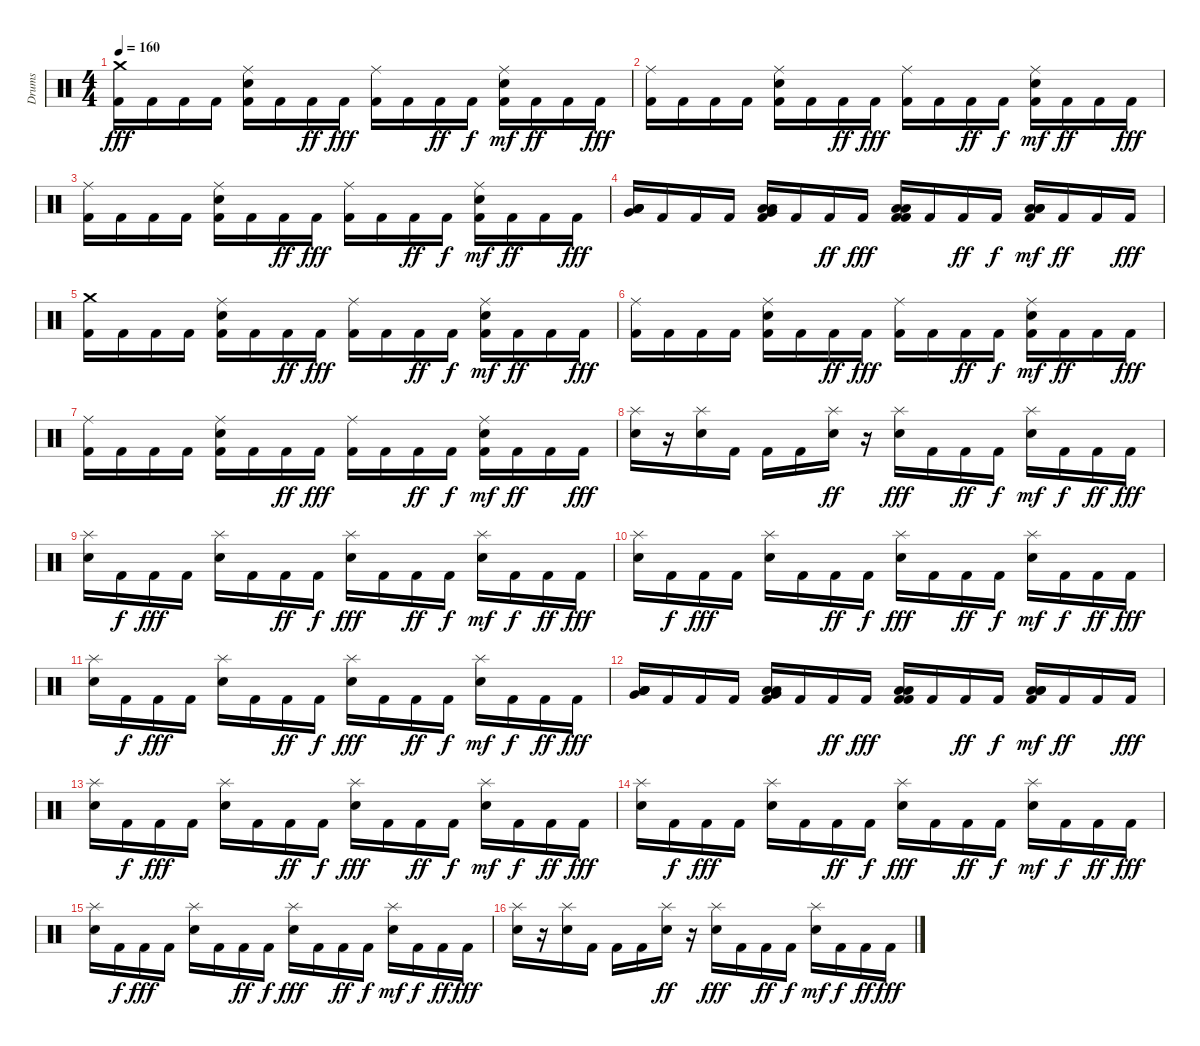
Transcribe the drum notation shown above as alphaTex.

\track ("Drums" "Drums") {instrument percussion}
\staff {score}
\articulation defaults
\ts (4 4)
\tempo 160
\clef neutral
\ks c
("Kick (hit) 2" "Crash medium (hit)").16{dy fff} "Kick (hit) 2".16 "Kick (hit) 2".16 "Kick (hit) 2".16 ("Kick (hit) 2" "Electric Snare (hit)" "Ride (middle)").16 "Kick (hit) 2".16 "Kick (hit) 2".16{dy ff} "Kick (hit) 2".16{dy fff} ("Kick (hit) 2" "Ride (middle)").16 "Kick (hit) 2".16 "Kick (hit) 2".16{dy ff} "Kick (hit) 2".16{dy f} ("Kick (hit) 2" "Electric Snare (hit)" "Ride (middle)").16{dy mf} "Kick (hit) 2".16{dy ff} "Kick (hit) 2".16 "Kick (hit) 2".16{dy fff} |
("Kick (hit) 2" "Ride (middle)").16 "Kick (hit) 2".16 "Kick (hit) 2".16 "Kick (hit) 2".16 ("Kick (hit) 2" "Electric Snare (hit)" "Ride (middle)").16 "Kick (hit) 2".16 "Kick (hit) 2".16{dy ff} "Kick (hit) 2".16{dy fff} ("Kick (hit) 2" "Ride (middle)").16 "Kick (hit) 2".16 "Kick (hit) 2".16{dy ff} "Kick (hit) 2".16{dy f} ("Kick (hit) 2" "Electric Snare (hit)" "Ride (middle)").16{dy mf} "Kick (hit) 2".16{dy ff} "Kick (hit) 2".16 "Kick (hit) 2".16{dy fff} |
("Kick (hit) 2" "Ride (middle)").16 "Kick (hit) 2".16 "Kick (hit) 2".16 "Kick (hit) 2".16 ("Kick (hit) 2" "Electric Snare (hit)" "Ride (middle)").16 "Kick (hit) 2".16 "Kick (hit) 2".16{dy ff} "Kick (hit) 2".16{dy fff} ("Kick (hit) 2" "Ride (middle)").16 "Kick (hit) 2".16 "Kick (hit) 2".16{dy ff} "Kick (hit) 2".16{dy f} ("Kick (hit) 2" "Electric Snare (hit)" "Ride (middle)").16{dy mf} "Kick (hit) 2".16{dy ff} "Kick (hit) 2".16 "Kick (hit) 2".16{dy fff} |
("Low Floor Tom (hit)" "Low Tom (hit)" "Low Floor Tom (hit)" "Very Low Tom (hit)").16 "Kick (hit) 2".16 "Kick (hit) 2".16 "Kick (hit) 2".16 ("Low Floor Tom (hit)" "Kick (hit) 2" "Low Floor Tom (hit)" "Very Low Tom (hit)").16 "Kick (hit) 2".16 "Kick (hit) 2".16{dy ff} "Kick (hit) 2".16{dy fff} ("Low Floor Tom (hit)" "Kick (hit) 2" "Low Floor Tom (hit)" "Kick (hit) 2").16 "Kick (hit) 2".16 "Kick (hit) 2".16{dy ff} "Kick (hit) 2".16{dy f} ("Low Floor Tom (hit)" "Kick (hit) 2" "Low Floor Tom (hit)" "Low Tom (hit)").16{dy mf} "Kick (hit) 2".16{dy ff} "Kick (hit) 2".16 "Kick (hit) 2".16{dy fff} |
("Kick (hit) 2" "Crash medium (hit)").16 "Kick (hit) 2".16 "Kick (hit) 2".16 "Kick (hit) 2".16 ("Kick (hit) 2" "Electric Snare (hit)" "Ride (middle)").16 "Kick (hit) 2".16 "Kick (hit) 2".16{dy ff} "Kick (hit) 2".16{dy fff} ("Kick (hit) 2" "Ride (middle)").16 "Kick (hit) 2".16 "Kick (hit) 2".16{dy ff} "Kick (hit) 2".16{dy f} ("Kick (hit) 2" "Electric Snare (hit)" "Ride (middle)").16{dy mf} "Kick (hit) 2".16{dy ff} "Kick (hit) 2".16 "Kick (hit) 2".16{dy fff} |
("Kick (hit) 2" "Ride (middle)").16 "Kick (hit) 2".16 "Kick (hit) 2".16 "Kick (hit) 2".16 ("Kick (hit) 2" "Electric Snare (hit)" "Ride (middle)").16 "Kick (hit) 2".16 "Kick (hit) 2".16{dy ff} "Kick (hit) 2".16{dy fff} ("Kick (hit) 2" "Ride (middle)").16 "Kick (hit) 2".16 "Kick (hit) 2".16{dy ff} "Kick (hit) 2".16{dy f} ("Kick (hit) 2" "Electric Snare (hit)" "Ride (middle)").16{dy mf} "Kick (hit) 2".16{dy ff} "Kick (hit) 2".16 "Kick (hit) 2".16{dy fff} |
("Kick (hit) 2" "Ride (middle)").16 "Kick (hit) 2".16 "Kick (hit) 2".16 "Kick (hit) 2".16 ("Kick (hit) 2" "Electric Snare (hit)" "Ride (middle)").16 "Kick (hit) 2".16 "Kick (hit) 2".16{dy ff} "Kick (hit) 2".16{dy fff} ("Kick (hit) 2" "Ride (middle)").16 "Kick (hit) 2".16 "Kick (hit) 2".16{dy ff} "Kick (hit) 2".16{dy f} ("Kick (hit) 2" "Electric Snare (hit)" "Ride (middle)").16{dy mf} "Kick (hit) 2".16{dy ff} "Kick (hit) 2".16 "Kick (hit) 2".16{dy fff} |
("Splash (hit)" "Electric Snare (hit)").16 r.16 ("Splash (hit)" "Electric Snare (hit)").16 "Kick (hit) 2".16 "Kick (hit) 2".16 "Kick (hit) 2".16 ("Splash (hit)" "Electric Snare (hit)").16{dy ff} r.16 ("Splash (hit)" "Electric Snare (hit)").16{dy fff} "Kick (hit) 2".16 "Kick (hit) 2".16{dy ff} "Kick (hit) 2".16{dy f} ("Splash (hit)" "Electric Snare (hit)").16{dy mf} "Kick (hit) 2".16{dy f} "Kick (hit) 2".16{dy ff} "Kick (hit) 2".16{dy fff} |
("Splash (hit)" "Electric Snare (hit)").16 "Kick (hit) 2".16{dy f} "Kick (hit) 2".16{dy fff} "Kick (hit) 2".16 ("Splash (hit)" "Electric Snare (hit)").16 "Kick (hit) 2".16 "Kick (hit) 2".16{dy ff} "Kick (hit) 2".16{dy f} ("Splash (hit)" "Electric Snare (hit)").16{dy fff} "Kick (hit) 2".16 "Kick (hit) 2".16{dy ff} "Kick (hit) 2".16{dy f} ("Splash (hit)" "Electric Snare (hit)").16{dy mf} "Kick (hit) 2".16{dy f} "Kick (hit) 2".16{dy ff} "Kick (hit) 2".16{dy fff} |
("Splash (hit)" "Electric Snare (hit)").16 "Kick (hit) 2".16{dy f} "Kick (hit) 2".16{dy fff} "Kick (hit) 2".16 ("Splash (hit)" "Electric Snare (hit)").16 "Kick (hit) 2".16 "Kick (hit) 2".16{dy ff} "Kick (hit) 2".16{dy f} ("Splash (hit)" "Electric Snare (hit)").16{dy fff} "Kick (hit) 2".16 "Kick (hit) 2".16{dy ff} "Kick (hit) 2".16{dy f} ("Splash (hit)" "Electric Snare (hit)").16{dy mf} "Kick (hit) 2".16{dy f} "Kick (hit) 2".16{dy ff} "Kick (hit) 2".16{dy fff} |
("Splash (hit)" "Electric Snare (hit)").16 "Kick (hit) 2".16{dy f} "Kick (hit) 2".16{dy fff} "Kick (hit) 2".16 ("Splash (hit)" "Electric Snare (hit)").16 "Kick (hit) 2".16 "Kick (hit) 2".16{dy ff} "Kick (hit) 2".16{dy f} ("Splash (hit)" "Electric Snare (hit)").16{dy fff} "Kick (hit) 2".16 "Kick (hit) 2".16{dy ff} "Kick (hit) 2".16{dy f} ("Splash (hit)" "Electric Snare (hit)").16{dy mf} "Kick (hit) 2".16{dy f} "Kick (hit) 2".16{dy ff} "Kick (hit) 2".16{dy fff} |
("Low Floor Tom (hit)" "Low Tom (hit)" "Low Floor Tom (hit)" "Very Low Tom (hit)").16 "Kick (hit) 2".16 "Kick (hit) 2".16 "Kick (hit) 2".16 ("Low Floor Tom (hit)" "Kick (hit) 2" "Low Floor Tom (hit)" "Very Low Tom (hit)").16 "Kick (hit) 2".16 "Kick (hit) 2".16{dy ff} "Kick (hit) 2".16{dy fff} ("Low Floor Tom (hit)" "Kick (hit) 2" "Low Floor Tom (hit)" "Kick (hit) 2").16 "Kick (hit) 2".16 "Kick (hit) 2".16{dy ff} "Kick (hit) 2".16{dy f} ("Low Floor Tom (hit)" "Kick (hit) 2" "Low Floor Tom (hit)" "Low Tom (hit)").16{dy mf} "Kick (hit) 2".16{dy ff} "Kick (hit) 2".16 "Kick (hit) 2".16{dy fff} |
("Splash (hit)" "Electric Snare (hit)").16 "Kick (hit) 2".16{dy f} "Kick (hit) 2".16{dy fff} "Kick (hit) 2".16 ("Splash (hit)" "Electric Snare (hit)").16 "Kick (hit) 2".16 "Kick (hit) 2".16{dy ff} "Kick (hit) 2".16{dy f} ("Splash (hit)" "Electric Snare (hit)").16{dy fff} "Kick (hit) 2".16 "Kick (hit) 2".16{dy ff} "Kick (hit) 2".16{dy f} ("Splash (hit)" "Electric Snare (hit)").16{dy mf} "Kick (hit) 2".16{dy f} "Kick (hit) 2".16{dy ff} "Kick (hit) 2".16{dy fff} |
("Splash (hit)" "Electric Snare (hit)").16 "Kick (hit) 2".16{dy f} "Kick (hit) 2".16{dy fff} "Kick (hit) 2".16 ("Splash (hit)" "Electric Snare (hit)").16 "Kick (hit) 2".16 "Kick (hit) 2".16{dy ff} "Kick (hit) 2".16{dy f} ("Splash (hit)" "Electric Snare (hit)").16{dy fff} "Kick (hit) 2".16 "Kick (hit) 2".16{dy ff} "Kick (hit) 2".16{dy f} ("Splash (hit)" "Electric Snare (hit)").16{dy mf} "Kick (hit) 2".16{dy f} "Kick (hit) 2".16{dy ff} "Kick (hit) 2".16{dy fff} |
("Splash (hit)" "Electric Snare (hit)").16 "Kick (hit) 2".16{dy f} "Kick (hit) 2".16{dy fff} "Kick (hit) 2".16 ("Splash (hit)" "Electric Snare (hit)").16 "Kick (hit) 2".16 "Kick (hit) 2".16{dy ff} "Kick (hit) 2".16{dy f} ("Splash (hit)" "Electric Snare (hit)").16{dy fff} "Kick (hit) 2".16 "Kick (hit) 2".16{dy ff} "Kick (hit) 2".16{dy f} ("Splash (hit)" "Electric Snare (hit)").16{dy mf} "Kick (hit) 2".16{dy f} "Kick (hit) 2".16{dy ff} "Kick (hit) 2".16{dy fff} |
("Splash (hit)" "Electric Snare (hit)").16 r.16 ("Splash (hit)" "Electric Snare (hit)").16 "Kick (hit) 2".16 "Kick (hit) 2".16 "Kick (hit) 2".16 ("Splash (hit)" "Electric Snare (hit)").16{dy ff} r.16 ("Splash (hit)" "Electric Snare (hit)").16{dy fff} "Kick (hit) 2".16 "Kick (hit) 2".16{dy ff} "Kick (hit) 2".16{dy f} ("Splash (hit)" "Electric Snare (hit)").16{dy mf} "Kick (hit) 2".16{dy f} "Kick (hit) 2".16{dy ff} "Kick (hit) 2".16{dy fff}
